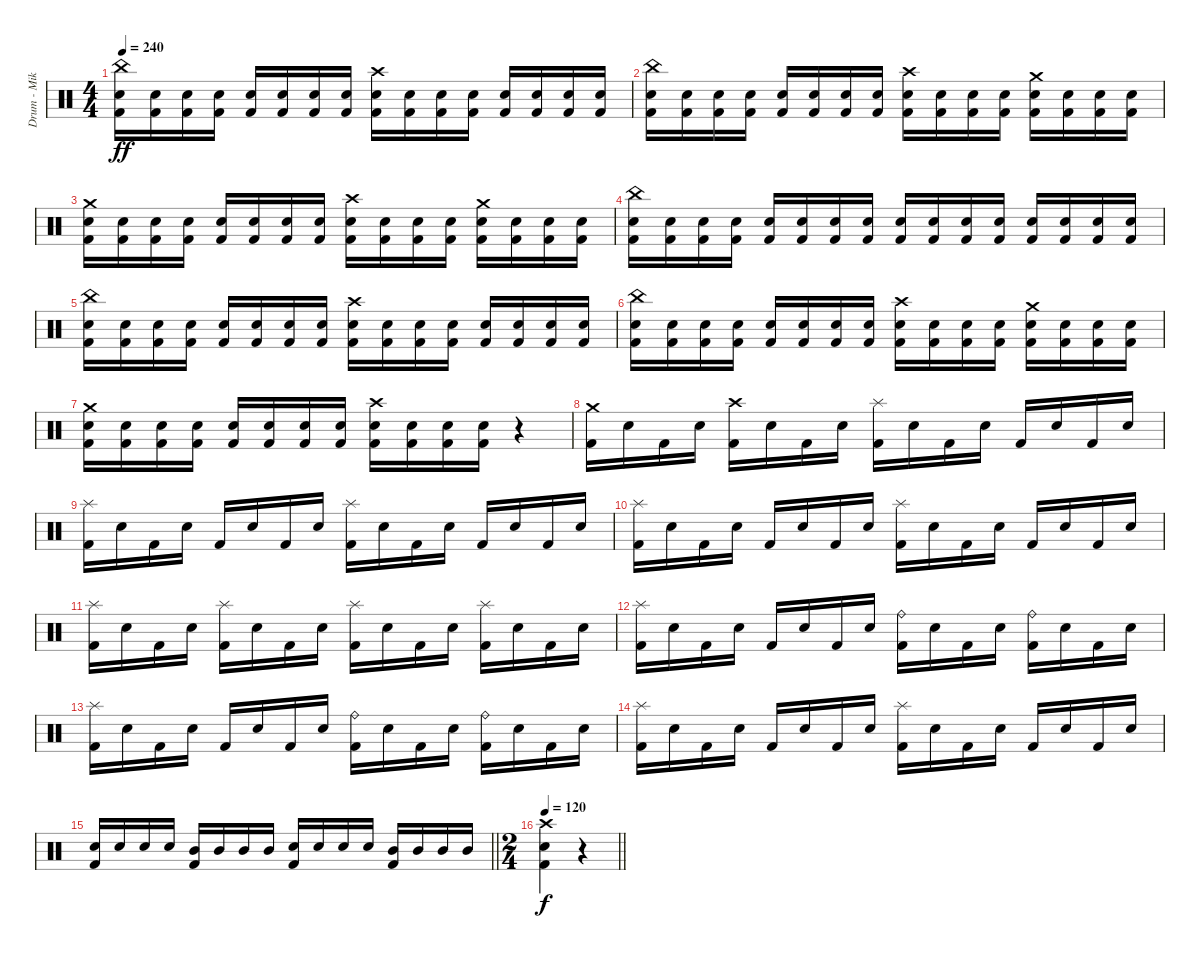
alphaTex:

\track ("Drum - Mike Collins" "Drum - Mik") {instrument percussion}
\staff {score}
\articulation defaults
\ts (4 4)
\tempo 240
\clef neutral
\ks c
("China (hit)" "Electric Snare (hit)" "Kick (hit) 2").16{dy ff} ("Electric Snare (hit)" "Kick (hit) 2").16 ("Electric Snare (hit)" "Kick (hit) 2").16 ("Electric Snare (hit)" "Kick (hit) 2").16 ("Electric Snare (hit)" "Kick (hit) 2").16 ("Electric Snare (hit)" "Kick (hit) 2").16 ("Electric Snare (hit)" "Kick (hit) 2").16 ("Electric Snare (hit)" "Kick (hit) 2").16 ("Crash high (hit)" "Electric Snare (hit)" "Kick (hit) 2").16 ("Electric Snare (hit)" "Kick (hit) 2").16 ("Electric Snare (hit)" "Kick (hit) 2").16 ("Electric Snare (hit)" "Kick (hit) 2").16 ("Electric Snare (hit)" "Kick (hit) 2").16 ("Electric Snare (hit)" "Kick (hit) 2").16 ("Electric Snare (hit)" "Kick (hit) 2").16 ("Electric Snare (hit)" "Kick (hit) 2").16 |
("China (hit)" "Electric Snare (hit)" "Kick (hit) 2").16 ("Electric Snare (hit)" "Kick (hit) 2").16 ("Electric Snare (hit)" "Kick (hit) 2").16 ("Electric Snare (hit)" "Kick (hit) 2").16 ("Electric Snare (hit)" "Kick (hit) 2").16 ("Electric Snare (hit)" "Kick (hit) 2").16 ("Electric Snare (hit)" "Kick (hit) 2").16 ("Electric Snare (hit)" "Kick (hit) 2").16 ("Crash high (hit)" "Electric Snare (hit)" "Kick (hit) 2").16 ("Electric Snare (hit)" "Kick (hit) 2").16 ("Electric Snare (hit)" "Kick (hit) 2").16 ("Electric Snare (hit)" "Kick (hit) 2").16 ("Crash medium (hit)" "Electric Snare (hit)" "Kick (hit) 2").16 ("Electric Snare (hit)" "Kick (hit) 2").16 ("Electric Snare (hit)" "Kick (hit) 2").16 ("Electric Snare (hit)" "Kick (hit) 2").16 |
("Crash medium (hit)" "Electric Snare (hit)" "Kick (hit) 2").16 ("Electric Snare (hit)" "Kick (hit) 2").16 ("Electric Snare (hit)" "Kick (hit) 2").16 ("Electric Snare (hit)" "Kick (hit) 2").16 ("Electric Snare (hit)" "Kick (hit) 2").16 ("Electric Snare (hit)" "Kick (hit) 2").16 ("Electric Snare (hit)" "Kick (hit) 2").16 ("Electric Snare (hit)" "Kick (hit) 2").16 ("Crash high (hit)" "Electric Snare (hit)" "Kick (hit) 2").16 ("Electric Snare (hit)" "Kick (hit) 2").16 ("Electric Snare (hit)" "Kick (hit) 2").16 ("Electric Snare (hit)" "Kick (hit) 2").16 ("Crash medium (hit)" "Electric Snare (hit)" "Kick (hit) 2").16 ("Electric Snare (hit)" "Kick (hit) 2").16 ("Electric Snare (hit)" "Kick (hit) 2").16 ("Electric Snare (hit)" "Kick (hit) 2").16 |
("China (hit)" "Electric Snare (hit)" "Kick (hit) 2").16 ("Electric Snare (hit)" "Kick (hit) 2").16 ("Electric Snare (hit)" "Kick (hit) 2").16 ("Electric Snare (hit)" "Kick (hit) 2").16 ("Electric Snare (hit)" "Kick (hit) 2").16 ("Electric Snare (hit)" "Kick (hit) 2").16 ("Electric Snare (hit)" "Kick (hit) 2").16 ("Electric Snare (hit)" "Kick (hit) 2").16 ("Electric Snare (hit)" "Kick (hit) 2").16 ("Electric Snare (hit)" "Kick (hit) 2").16 ("Electric Snare (hit)" "Kick (hit) 2").16 ("Electric Snare (hit)" "Kick (hit) 2").16 ("Electric Snare (hit)" "Kick (hit) 2").16 ("Electric Snare (hit)" "Kick (hit) 2").16 ("Electric Snare (hit)" "Kick (hit) 2").16 ("Electric Snare (hit)" "Kick (hit) 2").16 |
("China (hit)" "Electric Snare (hit)" "Kick (hit) 2").16 ("Electric Snare (hit)" "Kick (hit) 2").16 ("Electric Snare (hit)" "Kick (hit) 2").16 ("Electric Snare (hit)" "Kick (hit) 2").16 ("Electric Snare (hit)" "Kick (hit) 2").16 ("Electric Snare (hit)" "Kick (hit) 2").16 ("Electric Snare (hit)" "Kick (hit) 2").16 ("Electric Snare (hit)" "Kick (hit) 2").16 ("Crash high (hit)" "Electric Snare (hit)" "Kick (hit) 2").16 ("Electric Snare (hit)" "Kick (hit) 2").16 ("Electric Snare (hit)" "Kick (hit) 2").16 ("Electric Snare (hit)" "Kick (hit) 2").16 ("Electric Snare (hit)" "Kick (hit) 2").16 ("Electric Snare (hit)" "Kick (hit) 2").16 ("Electric Snare (hit)" "Kick (hit) 2").16 ("Electric Snare (hit)" "Kick (hit) 2").16 |
("China (hit)" "Electric Snare (hit)" "Kick (hit) 2").16 ("Electric Snare (hit)" "Kick (hit) 2").16 ("Electric Snare (hit)" "Kick (hit) 2").16 ("Electric Snare (hit)" "Kick (hit) 2").16 ("Electric Snare (hit)" "Kick (hit) 2").16 ("Electric Snare (hit)" "Kick (hit) 2").16 ("Electric Snare (hit)" "Kick (hit) 2").16 ("Electric Snare (hit)" "Kick (hit) 2").16 ("Crash high (hit)" "Electric Snare (hit)" "Kick (hit) 2").16 ("Electric Snare (hit)" "Kick (hit) 2").16 ("Electric Snare (hit)" "Kick (hit) 2").16 ("Electric Snare (hit)" "Kick (hit) 2").16 ("Crash medium (hit)" "Electric Snare (hit)" "Kick (hit) 2").16 ("Electric Snare (hit)" "Kick (hit) 2").16 ("Electric Snare (hit)" "Kick (hit) 2").16 ("Electric Snare (hit)" "Kick (hit) 2").16 |
("Crash medium (hit)" "Electric Snare (hit)" "Kick (hit) 2").16 ("Electric Snare (hit)" "Kick (hit) 2").16 ("Electric Snare (hit)" "Kick (hit) 2").16 ("Electric Snare (hit)" "Kick (hit) 2").16 ("Electric Snare (hit)" "Kick (hit) 2").16 ("Electric Snare (hit)" "Kick (hit) 2").16 ("Electric Snare (hit)" "Kick (hit) 2").16 ("Electric Snare (hit)" "Kick (hit) 2").16 ("Crash high (hit)" "Electric Snare (hit)" "Kick (hit) 2").16 ("Electric Snare (hit)" "Kick (hit) 2").16 ("Electric Snare (hit)" "Kick (hit) 2").16 ("Electric Snare (hit)" "Kick (hit) 2").16 r.4 |
("Crash medium (hit)" "Kick (hit) 2").16 "Electric Snare (hit)".16 "Kick (hit) 2".16 "Electric Snare (hit)".16 ("Crash high (hit)" "Kick (hit) 2").16 "Electric Snare (hit)".16 "Kick (hit) 2".16 "Electric Snare (hit)".16 ("Splash (hit)" "Kick (hit) 2").16 "Electric Snare (hit)".16 "Kick (hit) 2".16 "Electric Snare (hit)".16 "Kick (hit) 2".16 "Electric Snare (hit)".16 "Kick (hit) 2".16 "Electric Snare (hit)".16 |
("Splash (hit)" "Kick (hit) 2").16 "Electric Snare (hit)".16 "Kick (hit) 2".16 "Electric Snare (hit)".16 "Kick (hit) 2".16 "Electric Snare (hit)".16 "Kick (hit) 2".16 "Electric Snare (hit)".16 ("Splash (hit)" "Kick (hit) 2").16 "Electric Snare (hit)".16 "Kick (hit) 2".16 "Electric Snare (hit)".16 "Kick (hit) 2".16 "Electric Snare (hit)".16 "Kick (hit) 2".16 "Electric Snare (hit)".16 |
("Splash (hit)" "Kick (hit) 2").16 "Electric Snare (hit)".16 "Kick (hit) 2".16 "Electric Snare (hit)".16 "Kick (hit) 2".16 "Electric Snare (hit)".16 "Kick (hit) 2".16 "Electric Snare (hit)".16 ("Splash (hit)" "Kick (hit) 2").16 "Electric Snare (hit)".16 "Kick (hit) 2".16 "Electric Snare (hit)".16 "Kick (hit) 2".16 "Electric Snare (hit)".16 "Kick (hit) 2".16 "Electric Snare (hit)".16 |
("Splash (hit)" "Kick (hit) 2").16 "Electric Snare (hit)".16 "Kick (hit) 2".16 "Electric Snare (hit)".16 ("Splash (hit)" "Kick (hit) 2").16 "Electric Snare (hit)".16 "Kick (hit) 2".16 "Electric Snare (hit)".16 ("Splash (hit)" "Kick (hit) 2").16 "Electric Snare (hit)".16 "Kick (hit) 2".16 "Electric Snare (hit)".16 ("Splash (hit)" "Kick (hit) 2").16 "Electric Snare (hit)".16 "Kick (hit) 2".16 "Electric Snare (hit)".16 |
("Splash (hit)" "Kick (hit) 2").16 "Electric Snare (hit)".16 "Kick (hit) 2".16 "Electric Snare (hit)".16 "Kick (hit) 2".16 "Electric Snare (hit)".16 "Kick (hit) 2".16 "Electric Snare (hit)".16 ("Ride (bell)" "Kick (hit) 2").16 "Electric Snare (hit)".16 "Kick (hit) 2".16 "Electric Snare (hit)".16 ("Ride (bell)" "Kick (hit) 2").16 "Electric Snare (hit)".16 "Kick (hit) 2".16 "Electric Snare (hit)".16 |
("Splash (hit)" "Kick (hit) 2").16 "Electric Snare (hit)".16 "Kick (hit) 2".16 "Electric Snare (hit)".16 "Kick (hit) 2".16 "Electric Snare (hit)".16 "Kick (hit) 2".16 "Electric Snare (hit)".16 ("Ride (bell)" "Kick (hit) 2").16 "Electric Snare (hit)".16 "Kick (hit) 2".16 "Electric Snare (hit)".16 ("Ride (bell)" "Kick (hit) 2").16 "Electric Snare (hit)".16 "Kick (hit) 2".16 "Electric Snare (hit)".16 |
("Splash (hit)" "Kick (hit) 2").16 "Electric Snare (hit)".16 "Kick (hit) 2".16 "Electric Snare (hit)".16 "Kick (hit) 2".16 "Electric Snare (hit)".16 "Kick (hit) 2".16 "Electric Snare (hit)".16 ("Splash (hit)" "Kick (hit) 2").16 "Electric Snare (hit)".16 "Kick (hit) 2".16 "Electric Snare (hit)".16 "Kick (hit) 2".16 "Electric Snare (hit)".16 "Kick (hit) 2".16 "Electric Snare (hit)".16 |
\barLineRight lightlight
("Electric Snare (hit)" "Kick (hit) 2").16 "Electric Snare (hit)".16 "Electric Snare (hit)".16 "Electric Snare (hit)".16 ("Mid Tom (hit)" "Kick (hit) 2").16 "Mid Tom (hit)".16 "Mid Tom (hit)".16 "Mid Tom (hit)".16 ("Electric Snare (hit)" "Kick (hit) 2").16 "Electric Snare (hit)".16 "Electric Snare (hit)".16 "Electric Snare (hit)".16 ("Mid Tom (hit)" "Kick (hit) 2").16 "Mid Tom (hit)".16 "Mid Tom (hit)".16 "Mid Tom (hit)".16 |
\ts (2 4)
\tempo 120
\barLineRight lightlight
("Crash high (hit)" "Electric Snare (hit)" "Kick (hit) 2").4{dy f} r.4
